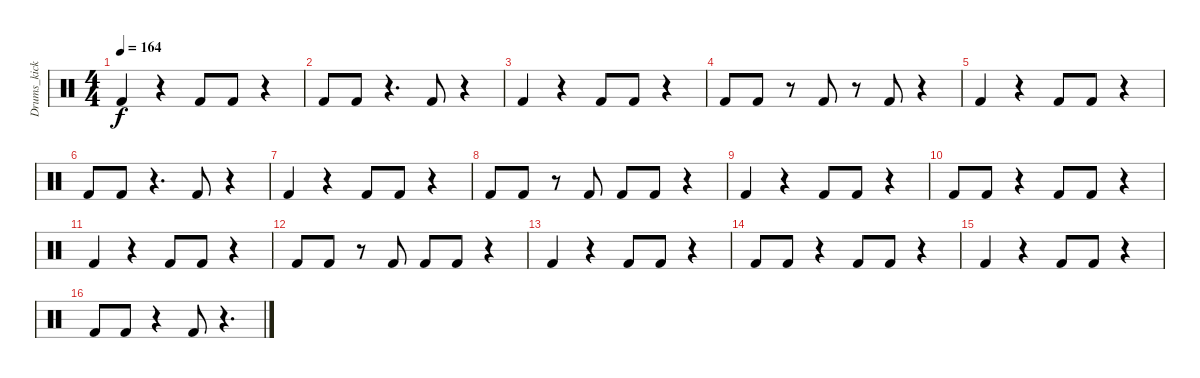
\track ("Drums_kick" "Drums_kick") {instrument percussion}
\staff {score}
\articulation defaults
\ts (4 4)
\tempo 164
\clef neutral
\ks c "Kick (hit) 2".4{dy f}
r.4 "Kick (hit) 2".8 "Kick (hit) 2".8 r.4 |
"Kick (hit) 2".8 "Kick (hit) 2".8 r.4{d} "Kick (hit) 2".8 r.4 |
"Kick (hit) 2".4 r.4 "Kick (hit) 2".8 "Kick (hit) 2".8 r.4 |
"Kick (hit) 2".8 "Kick (hit) 2".8 r.8 "Kick (hit) 2".8 r.8 "Kick (hit) 2".8 r.4 |
"Kick (hit) 2".4 r.4 "Kick (hit) 2".8 "Kick (hit) 2".8 r.4 |
"Kick (hit) 2".8 "Kick (hit) 2".8 r.4{d} "Kick (hit) 2".8 r.4 |
"Kick (hit) 2".4 r.4 "Kick (hit) 2".8 "Kick (hit) 2".8 r.4 |
"Kick (hit) 2".8 "Kick (hit) 2".8 r.8 "Kick (hit) 2".8 "Kick (hit) 2".8 "Kick (hit) 2".8 r.4 |
"Kick (hit) 2".4 r.4 "Kick (hit) 2".8 "Kick (hit) 2".8 r.4 |
"Kick (hit) 2".8 "Kick (hit) 2".8 r.4 "Kick (hit) 2".8 "Kick (hit) 2".8 r.4 |
"Kick (hit) 2".4 r.4 "Kick (hit) 2".8 "Kick (hit) 2".8 r.4 |
"Kick (hit) 2".8 "Kick (hit) 2".8 r.8 "Kick (hit) 2".8 "Kick (hit) 2".8 "Kick (hit) 2".8 r.4 |
"Kick (hit) 2".4 r.4 "Kick (hit) 2".8 "Kick (hit) 2".8 r.4 |
"Kick (hit) 2".8 "Kick (hit) 2".8 r.4 "Kick (hit) 2".8 "Kick (hit) 2".8 r.4 |
"Kick (hit) 2".4 r.4 "Kick (hit) 2".8 "Kick (hit) 2".8 r.4 |
"Kick (hit) 2".8 "Kick (hit) 2".8 r.4 "Kick (hit) 2".8 r.4{d}
